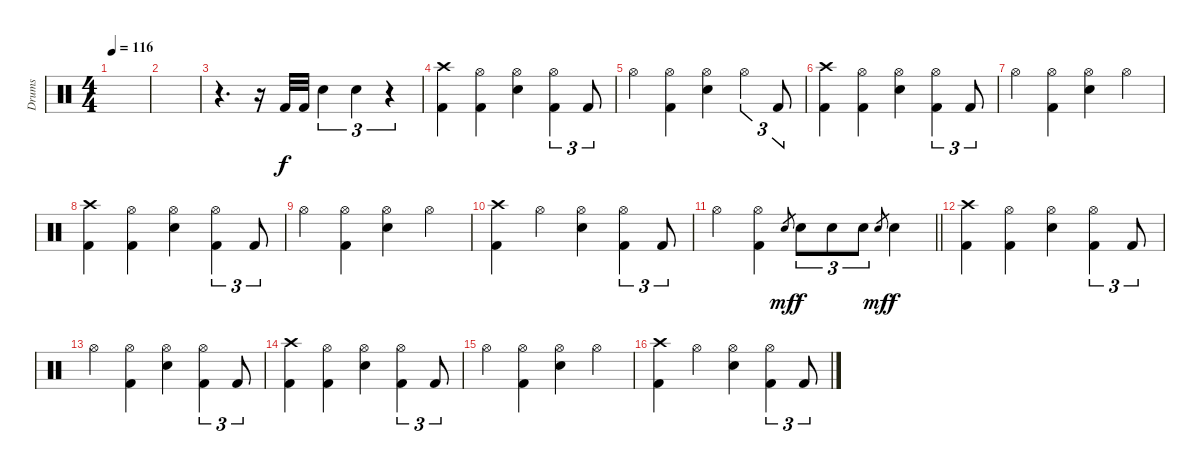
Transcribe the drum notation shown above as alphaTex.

\track ("Drums" "Drums") {instrument percussion}
\staff {score}
\articulation defaults
\ts (4 4)
\tempo 116
\clef neutral
\ks c
|
|
r.4{d} r.16 "Kick (hit) 2".32 "Kick (hit) 2".32 "Electric Snare (hit)".4{tu (3 2)} "Electric Snare (hit)".4{tu (3 2)} r.4{tu (3 2)} |
("Crash high (hit)" "Kick (hit) 2").4 ("Hi-Hat (open)" "Kick (hit) 2").4 ("Electric Snare (hit)" "Hi-Hat (open)").4 ("Hi-Hat (open)" "Kick (hit) 2").4{tu (3 2)} "Kick (hit) 2".8{tu (3 2)} |
"Hi-Hat (open)".4 ("Hi-Hat (open)" "Kick (hit) 2").4 ("Electric Snare (hit)" "Hi-Hat (open)").4 "Hi-Hat (open)".4{tu (3 2)} "Kick (hit) 2".8{tu (3 2)} |
("Crash high (hit)" "Kick (hit) 2").4 ("Hi-Hat (open)" "Kick (hit) 2").4 ("Electric Snare (hit)" "Hi-Hat (open)").4 ("Hi-Hat (open)" "Kick (hit) 2").4{tu (3 2)} "Kick (hit) 2".8{tu (3 2)} |
"Hi-Hat (open)".4 ("Hi-Hat (open)" "Kick (hit) 2").4 ("Electric Snare (hit)" "Hi-Hat (open)").4 "Hi-Hat (open)".4 |
("Crash high (hit)" "Kick (hit) 2").4 ("Hi-Hat (open)" "Kick (hit) 2").4 ("Electric Snare (hit)" "Hi-Hat (open)").4 ("Hi-Hat (open)" "Kick (hit) 2").4{tu (3 2)} "Kick (hit) 2".8{tu (3 2)} |
"Hi-Hat (open)".4 ("Hi-Hat (open)" "Kick (hit) 2").4 ("Electric Snare (hit)" "Hi-Hat (open)").4 "Hi-Hat (open)".4 |
("Crash high (hit)" "Kick (hit) 2").4 "Hi-Hat (open)".4 ("Electric Snare (hit)" "Hi-Hat (open)").4 ("Hi-Hat (open)" "Kick (hit) 2").4{tu (3 2)} "Kick (hit) 2".8{tu (3 2)} |
\barLineRight lightlight "Hi-Hat (open)".4
("Hi-Hat (open)" "Kick (hit) 2").4 "Electric Snare (hit)".8{gr dy mf} "Electric Snare (hit)".8{tu (3 2) dy f} "Electric Snare (hit)".8{tu (3 2)} "Electric Snare (hit)".8{tu (3 2)} "Electric Snare (hit)".8{gr dy mf} "Electric Snare (hit)".4{dy f} |
("Crash high (hit)" "Kick (hit) 2").4 ("Hi-Hat (open)" "Kick (hit) 2").4 ("Electric Snare (hit)" "Hi-Hat (open)").4 ("Hi-Hat (open)" "Kick (hit) 2").4{tu (3 2)} "Kick (hit) 2".8{tu (3 2)} |
"Hi-Hat (open)".4 ("Hi-Hat (open)" "Kick (hit) 2").4 ("Electric Snare (hit)" "Hi-Hat (open)").4 ("Hi-Hat (open)" "Kick (hit) 2").4{tu (3 2)} "Kick (hit) 2".8{tu (3 2)} |
("Crash high (hit)" "Kick (hit) 2").4 ("Hi-Hat (open)" "Kick (hit) 2").4 ("Electric Snare (hit)" "Hi-Hat (open)").4 ("Hi-Hat (open)" "Kick (hit) 2").4{tu (3 2)} "Kick (hit) 2".8{tu (3 2)} |
"Hi-Hat (open)".4 ("Hi-Hat (open)" "Kick (hit) 2").4 ("Electric Snare (hit)" "Hi-Hat (open)").4 "Hi-Hat (open)".4 |
("Crash high (hit)" "Kick (hit) 2").4 "Hi-Hat (open)".4 ("Electric Snare (hit)" "Hi-Hat (open)").4 ("Hi-Hat (open)" "Kick (hit) 2").4{tu (3 2)} "Kick (hit) 2".8{tu (3 2)}
